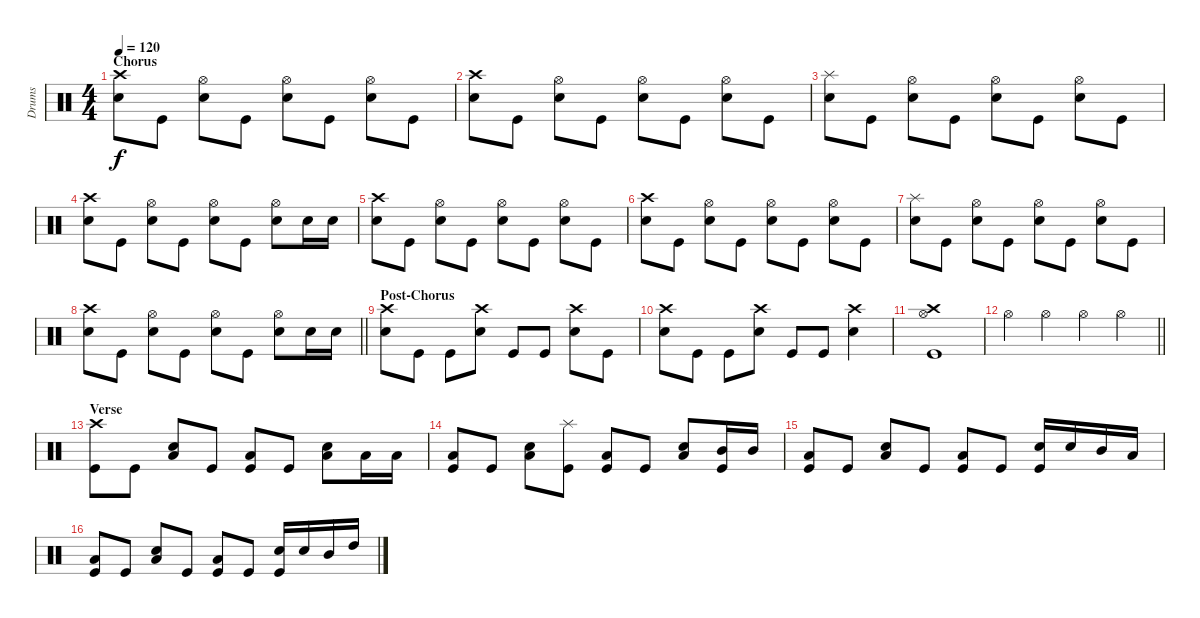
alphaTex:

\track ("Drums" "Drums") {instrument percussion}
\staff {score}
\articulation defaults
\ts (4 4)
\section ("" "Chorus")
\tempo 120
\clef neutral
\ks c
("Crash high (hit)" "Snare (hit) 2").8{dy f} "Kick (hit)".8 ("Hi-Hat (open)" "Snare (hit) 2").8 "Kick (hit)".8 ("Hi-Hat (open)" "Snare (hit) 2").8 "Kick (hit)".8 ("Hi-Hat (open)" "Snare (hit) 2").8 "Kick (hit)".8 |
("Crash high (hit)" "Snare (hit) 2").8 "Kick (hit)".8 ("Hi-Hat (open)" "Snare (hit) 2").8 "Kick (hit)".8 ("Hi-Hat (open)" "Snare (hit) 2").8 "Kick (hit)".8 ("Hi-Hat (open)" "Snare (hit) 2").8 "Kick (hit)".8 |
("Splash (hit)" "Snare (hit) 2").8 "Kick (hit)".8 ("Hi-Hat (open)" "Snare (hit) 2").8 "Kick (hit)".8 ("Hi-Hat (open)" "Snare (hit) 2").8 "Kick (hit)".8 ("Hi-Hat (open)" "Snare (hit) 2").8 "Kick (hit)".8 |
("Crash high (hit)" "Snare (hit) 2").8 "Kick (hit)".8 ("Hi-Hat (open)" "Snare (hit) 2").8 "Kick (hit)".8 ("Hi-Hat (open)" "Snare (hit) 2").8 "Kick (hit)".8 ("Hi-Hat (open)" "Snare (hit) 2").8 "Snare (hit) 2".16 "Snare (hit) 2".16 |
("Crash high (hit)" "Snare (hit) 2").8 "Kick (hit)".8 ("Hi-Hat (open)" "Snare (hit) 2").8 "Kick (hit)".8 ("Hi-Hat (open)" "Snare (hit) 2").8 "Kick (hit)".8 ("Hi-Hat (open)" "Snare (hit) 2").8 "Kick (hit)".8 |
("Crash high (hit)" "Snare (hit) 2").8 "Kick (hit)".8 ("Hi-Hat (open)" "Snare (hit) 2").8 "Kick (hit)".8 ("Hi-Hat (open)" "Snare (hit) 2").8 "Kick (hit)".8 ("Hi-Hat (open)" "Snare (hit) 2").8 "Kick (hit)".8 |
("Splash (hit)" "Snare (hit) 2").8 "Kick (hit)".8 ("Hi-Hat (open)" "Snare (hit) 2").8 "Kick (hit)".8 ("Hi-Hat (open)" "Snare (hit) 2").8 "Kick (hit)".8 ("Hi-Hat (open)" "Snare (hit) 2").8 "Kick (hit)".8 |
\barLineRight lightlight
("Crash high (hit)" "Snare (hit) 2").8 "Kick (hit)".8 ("Hi-Hat (open)" "Snare (hit) 2").8 "Kick (hit)".8 ("Hi-Hat (open)" "Snare (hit) 2").8 "Kick (hit)".8 ("Hi-Hat (open)" "Snare (hit) 2").8 "Snare (hit) 2".16 "Snare (hit) 2".16 |
\section ("" "Post-Chorus")
("Crash high (hit)" "Snare (hit) 2").8 "Kick (hit)".8 "Kick (hit)".8 ("Crash high (hit)" "Snare (hit) 2").8 "Kick (hit)".8 "Kick (hit)".8 ("Crash high (hit)" "Snare (hit) 2").8 "Kick (hit)".8 |
("Crash high (hit)" "Snare (hit) 2").8 "Kick (hit)".8 "Kick (hit)".8 ("Crash high (hit)" "Snare (hit) 2").8 "Kick (hit)".8 "Kick (hit)".8 ("Crash high (hit)" "Snare (hit) 2").4 |
("Crash high (hit)" "Hi-Hat (open)" "Kick (hit)").1 |
\barLineRight lightlight "Hi-Hat (open)".4 "Hi-Hat (open)".4 "Hi-Hat (open)".4 "Hi-Hat (open)".4
|
\section ("" "Verse")
("Crash high (hit)" "Kick (hit)").8 "Kick (hit)".8 ("Low Tom (hit)" "Snare (hit) 2").8 "Kick (hit)".8 ("Low Tom (hit)" "Kick (hit)").8 "Kick (hit)".8 ("Low Tom (hit)" "Snare (hit) 2").8 "Low Tom (hit)".16 "Low Tom (hit)".16 |
("Low Tom (hit)" "Kick (hit)").8 "Kick (hit)".8 ("Low Tom (hit)" "Snare (hit) 2").8 ("Splash (hit)" "Kick (hit)").8 ("Low Tom (hit)" "Kick (hit)").8 "Kick (hit)".8 ("Low Tom (hit)" "Snare (hit) 2").8 ("Mid Tom (hit)" "Kick (hit)").16 "Mid Tom (hit)".16 |
("Low Tom (hit)" "Kick (hit)").8 "Kick (hit)".8 ("Low Tom (hit)" "Snare (hit) 2").8 "Kick (hit)".8 ("Low Tom (hit)" "Kick (hit)").8 "Kick (hit)".8 ("Snare (hit) 2" "Kick (hit)").16 "Snare (hit) 2".16 "Mid Tom (hit)".16 "Low Tom (hit)".16 |
("Low Tom (hit)" "Kick (hit)").8 "Kick (hit)".8 ("Low Tom (hit)" "Snare (hit) 2").8 "Kick (hit)".8 ("Low Tom (hit)" "Kick (hit)").8 "Kick (hit)".8 ("Snare (hit) 2" "Kick (hit)").16 "Snare (hit) 2".16 "Mid Tom (hit)".16 "High Tom (hit)".16
